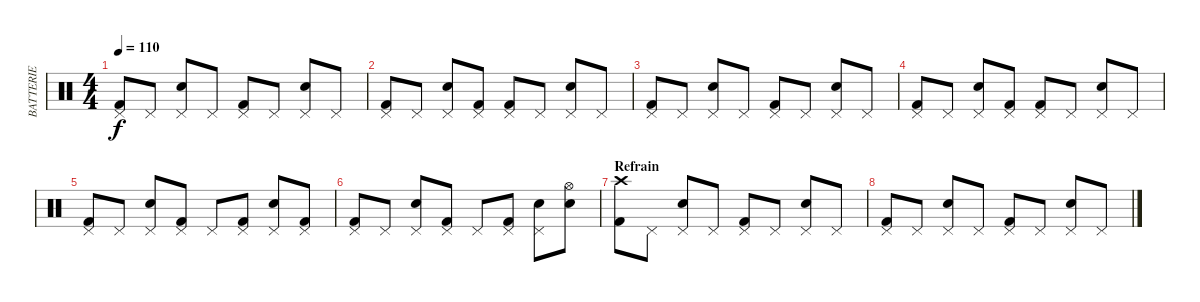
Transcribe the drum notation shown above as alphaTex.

\track ("BATTERIE" "BATTERIE") {instrument percussion}
\staff {score}
\articulation defaults
\ts (4 4)
\tempo 110
\clef neutral
\ks c
("Pedal Hi-Hat (hit)" "Kick (hit) 2").8{dy f} "Pedal Hi-Hat (hit)".8 ("Pedal Hi-Hat (hit)" "Snare (hit) 2").8 "Pedal Hi-Hat (hit)".8 ("Pedal Hi-Hat (hit)" "Kick (hit) 2").8 "Pedal Hi-Hat (hit)".8 ("Pedal Hi-Hat (hit)" "Snare (hit) 2").8 "Pedal Hi-Hat (hit)".8 |
("Pedal Hi-Hat (hit)" "Kick (hit) 2").8 "Pedal Hi-Hat (hit)".8 ("Pedal Hi-Hat (hit)" "Snare (hit) 2").8 ("Pedal Hi-Hat (hit)" "Kick (hit) 2").8 ("Pedal Hi-Hat (hit)" "Kick (hit) 2").8 "Pedal Hi-Hat (hit)".8 ("Pedal Hi-Hat (hit)" "Snare (hit) 2").8 "Pedal Hi-Hat (hit)".8 |
("Pedal Hi-Hat (hit)" "Kick (hit) 2").8 "Pedal Hi-Hat (hit)".8 ("Pedal Hi-Hat (hit)" "Snare (hit) 2").8 "Pedal Hi-Hat (hit)".8 ("Pedal Hi-Hat (hit)" "Kick (hit) 2").8 "Pedal Hi-Hat (hit)".8 ("Pedal Hi-Hat (hit)" "Snare (hit) 2").8 "Pedal Hi-Hat (hit)".8 |
("Pedal Hi-Hat (hit)" "Kick (hit) 2").8 "Pedal Hi-Hat (hit)".8 ("Pedal Hi-Hat (hit)" "Snare (hit) 2").8 ("Pedal Hi-Hat (hit)" "Kick (hit) 2").8 ("Pedal Hi-Hat (hit)" "Kick (hit) 2").8 "Pedal Hi-Hat (hit)".8 ("Pedal Hi-Hat (hit)" "Snare (hit) 2").8 "Pedal Hi-Hat (hit)".8 |
("Pedal Hi-Hat (hit)" "Kick (hit) 2").8 "Pedal Hi-Hat (hit)".8 ("Pedal Hi-Hat (hit)" "Snare (hit) 2").8 ("Pedal Hi-Hat (hit)" "Kick (hit) 2").8 "Pedal Hi-Hat (hit)".8 ("Pedal Hi-Hat (hit)" "Kick (hit) 2").8 ("Pedal Hi-Hat (hit)" "Snare (hit) 2").8 ("Pedal Hi-Hat (hit)" "Kick (hit) 2").8 |
("Pedal Hi-Hat (hit)" "Kick (hit) 2").8 "Pedal Hi-Hat (hit)".8 ("Pedal Hi-Hat (hit)" "Snare (hit) 2").8 ("Pedal Hi-Hat (hit)" "Kick (hit) 2").8 "Pedal Hi-Hat (hit)".8 ("Pedal Hi-Hat (hit)" "Kick (hit) 2").8 ("Pedal Hi-Hat (hit)" "Snare (hit) 2").8 ("Hi-Hat (open)" "Snare (hit) 2").8 |
\section ("" "Refrain")
("Crash high (hit)" "Kick (hit) 2").8 "Pedal Hi-Hat (hit)".8 ("Pedal Hi-Hat (hit)" "Snare (hit) 2").8 "Pedal Hi-Hat (hit)".8 ("Pedal Hi-Hat (hit)" "Kick (hit) 2").8 "Pedal Hi-Hat (hit)".8 ("Pedal Hi-Hat (hit)" "Snare (hit) 2").8 "Pedal Hi-Hat (hit)".8 |
("Pedal Hi-Hat (hit)" "Kick (hit) 2").8 "Pedal Hi-Hat (hit)".8 ("Pedal Hi-Hat (hit)" "Snare (hit) 2").8 "Pedal Hi-Hat (hit)".8 ("Pedal Hi-Hat (hit)" "Kick (hit) 2").8 "Pedal Hi-Hat (hit)".8 ("Pedal Hi-Hat (hit)" "Snare (hit) 2").8 "Pedal Hi-Hat (hit)".8
